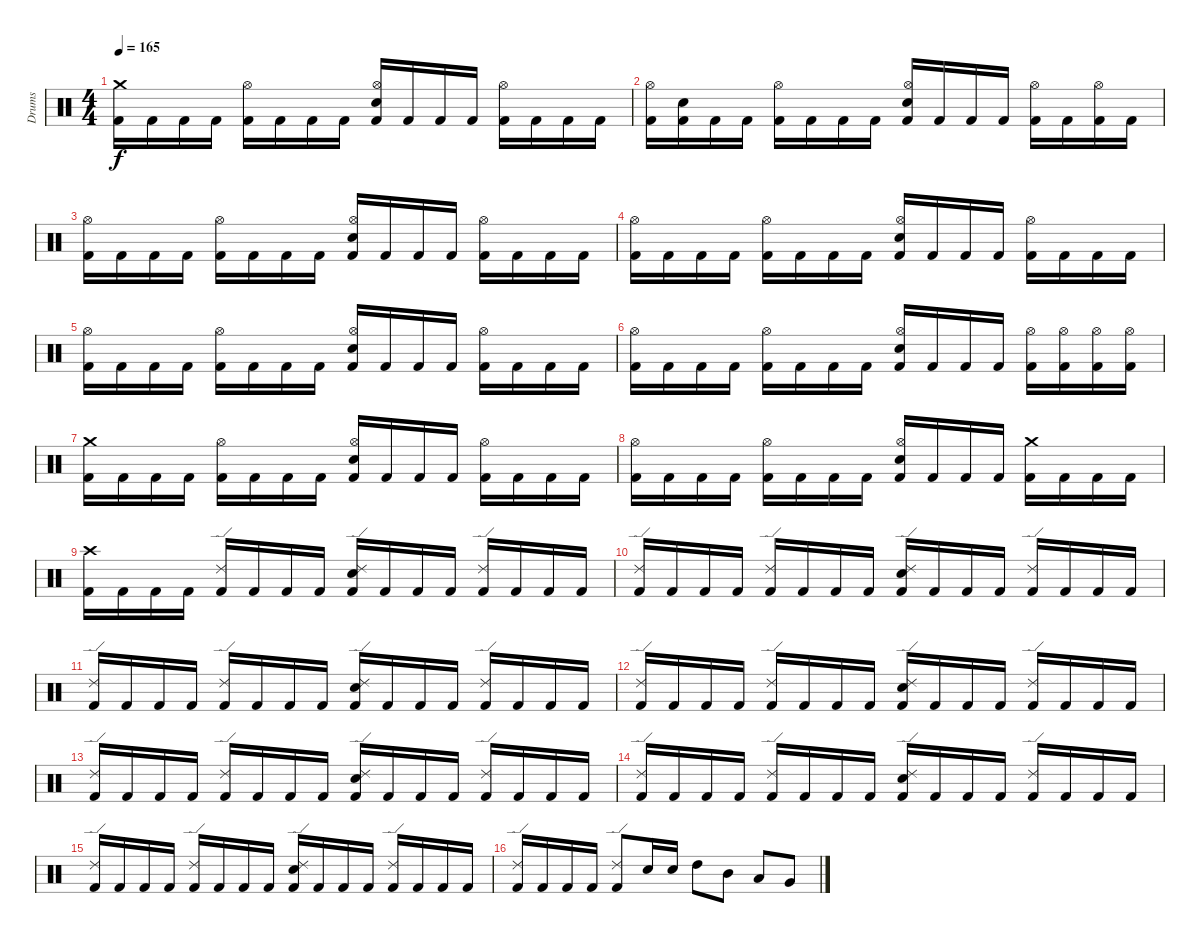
\track ("Drums" "Drums") {instrument percussion}
\staff {score}
\articulation defaults
\ts (4 4)
\tempo 165
\clef neutral
\ks c
("Kick (hit) 2" "Crash medium (hit)").16{dy f} "Kick (hit) 2".16 "Kick (hit) 2".16 "Kick (hit) 2".16 ("Kick (hit) 2" "Hi-Hat (open)").16 "Kick (hit) 2".16 "Kick (hit) 2".16 "Kick (hit) 2".16 ("Kick (hit) 2" "Electric Snare (hit)" "Hi-Hat (open)").16 "Kick (hit) 2".16 "Kick (hit) 2".16 "Kick (hit) 2".16 ("Kick (hit) 2" "Hi-Hat (open)").16 "Kick (hit) 2".16 "Kick (hit) 2".16 "Kick (hit) 2".16 |
("Kick (hit) 2" "Hi-Hat (open)").16 ("Kick (hit) 2" "Snare (hit)").16 "Kick (hit) 2".16 "Kick (hit) 2".16 ("Kick (hit) 2" "Hi-Hat (open)").16 "Kick (hit) 2".16 "Kick (hit) 2".16 "Kick (hit) 2".16 ("Kick (hit) 2" "Electric Snare (hit)" "Hi-Hat (open)").16 "Kick (hit) 2".16 "Kick (hit) 2".16 "Kick (hit) 2".16 ("Kick (hit) 2" "Hi-Hat (open)").16 "Kick (hit) 2".16 ("Kick (hit) 2" "Hi-Hat (open)").16 "Kick (hit) 2".16 |
("Kick (hit) 2" "Hi-Hat (open)").16 "Kick (hit) 2".16 "Kick (hit) 2".16 "Kick (hit) 2".16 ("Kick (hit) 2" "Hi-Hat (open)").16 "Kick (hit) 2".16 "Kick (hit) 2".16 "Kick (hit) 2".16 ("Kick (hit) 2" "Electric Snare (hit)" "Hi-Hat (open)").16 "Kick (hit) 2".16 "Kick (hit) 2".16 "Kick (hit) 2".16 ("Kick (hit) 2" "Hi-Hat (open)").16 "Kick (hit) 2".16 "Kick (hit) 2".16 "Kick (hit) 2".16 |
("Kick (hit) 2" "Hi-Hat (open)").16 "Kick (hit) 2".16 "Kick (hit) 2".16 "Kick (hit) 2".16 ("Kick (hit) 2" "Hi-Hat (open)").16 "Kick (hit) 2".16 "Kick (hit) 2".16 "Kick (hit) 2".16 ("Kick (hit) 2" "Electric Snare (hit)" "Hi-Hat (open)").16 "Kick (hit) 2".16 "Kick (hit) 2".16 "Kick (hit) 2".16 ("Kick (hit) 2" "Hi-Hat (open)").16 "Kick (hit) 2".16 "Kick (hit) 2".16 "Kick (hit) 2".16 |
("Kick (hit) 2" "Hi-Hat (open)").16 "Kick (hit) 2".16 "Kick (hit) 2".16 "Kick (hit) 2".16 ("Kick (hit) 2" "Hi-Hat (open)").16 "Kick (hit) 2".16 "Kick (hit) 2".16 "Kick (hit) 2".16 ("Kick (hit) 2" "Electric Snare (hit)" "Hi-Hat (open)").16 "Kick (hit) 2".16 "Kick (hit) 2".16 "Kick (hit) 2".16 ("Kick (hit) 2" "Hi-Hat (open)").16 "Kick (hit) 2".16 "Kick (hit) 2".16 "Kick (hit) 2".16 |
("Kick (hit) 2" "Hi-Hat (open)").16 "Kick (hit) 2".16 "Kick (hit) 2".16 "Kick (hit) 2".16 ("Kick (hit) 2" "Hi-Hat (open)").16 "Kick (hit) 2".16 "Kick (hit) 2".16 "Kick (hit) 2".16 ("Kick (hit) 2" "Electric Snare (hit)" "Hi-Hat (open)").16 "Kick (hit) 2".16 "Kick (hit) 2".16 "Kick (hit) 2".16 ("Kick (hit) 2" "Hi-Hat (open)").16 ("Kick (hit) 2" "Hi-Hat (open)").16 ("Kick (hit) 2" "Hi-Hat (open)").16 ("Kick (hit) 2" "Hi-Hat (open)").16 |
("Kick (hit) 2" "Crash medium (hit)").16 "Kick (hit) 2".16 "Kick (hit) 2".16 "Kick (hit) 2".16 ("Kick (hit) 2" "Hi-Hat (open)").16 "Kick (hit) 2".16 "Kick (hit) 2".16 "Kick (hit) 2".16 ("Kick (hit) 2" "Electric Snare (hit)" "Hi-Hat (open)").16 "Kick (hit) 2".16 "Kick (hit) 2".16 "Kick (hit) 2".16 ("Kick (hit) 2" "Hi-Hat (open)").16 "Kick (hit) 2".16 "Kick (hit) 2".16 "Kick (hit) 2".16 |
("Kick (hit) 2" "Hi-Hat (open)").16 "Kick (hit) 2".16 "Kick (hit) 2".16 "Kick (hit) 2".16 ("Kick (hit) 2" "Hi-Hat (open)").16 "Kick (hit) 2".16 "Kick (hit) 2".16 "Kick (hit) 2".16 ("Kick (hit) 2" "Electric Snare (hit)" "Hi-Hat (open)").16 "Kick (hit) 2".16 "Kick (hit) 2".16 "Kick (hit) 2".16 ("Kick (hit) 2" "Crash medium (hit)").16 "Kick (hit) 2".16 "Kick (hit) 2".16 "Kick (hit) 2".16 |
("Kick (hit) 2" "Crash high (hit)").16 "Kick (hit) 2".16 "Kick (hit) 2".16 "Kick (hit) 2".16 ("Kick (hit) 2" "Ride (edge) 2").16 "Kick (hit) 2".16 "Kick (hit) 2".16 "Kick (hit) 2".16 ("Kick (hit) 2" "Electric Snare (hit)" "Ride (edge) 2").16 "Kick (hit) 2".16 "Kick (hit) 2".16 "Kick (hit) 2".16 ("Kick (hit) 2" "Ride (edge) 2").16 "Kick (hit) 2".16 "Kick (hit) 2".16 "Kick (hit) 2".16 |
("Kick (hit) 2" "Ride (edge) 2").16 "Kick (hit) 2".16 "Kick (hit) 2".16 "Kick (hit) 2".16 ("Kick (hit) 2" "Ride (edge) 2").16 "Kick (hit) 2".16 "Kick (hit) 2".16 "Kick (hit) 2".16 ("Kick (hit) 2" "Electric Snare (hit)" "Ride (edge) 2").16 "Kick (hit) 2".16 "Kick (hit) 2".16 "Kick (hit) 2".16 ("Kick (hit) 2" "Ride (edge) 2").16 "Kick (hit) 2".16 "Kick (hit) 2".16 "Kick (hit) 2".16 |
("Kick (hit) 2" "Ride (edge) 2").16 "Kick (hit) 2".16 "Kick (hit) 2".16 "Kick (hit) 2".16 ("Kick (hit) 2" "Ride (edge) 2").16 "Kick (hit) 2".16 "Kick (hit) 2".16 "Kick (hit) 2".16 ("Kick (hit) 2" "Electric Snare (hit)" "Ride (edge) 2").16 "Kick (hit) 2".16 "Kick (hit) 2".16 "Kick (hit) 2".16 ("Kick (hit) 2" "Ride (edge) 2").16 "Kick (hit) 2".16 "Kick (hit) 2".16 "Kick (hit) 2".16 |
("Kick (hit) 2" "Ride (edge) 2").16 "Kick (hit) 2".16 "Kick (hit) 2".16 "Kick (hit) 2".16 ("Kick (hit) 2" "Ride (edge) 2").16 "Kick (hit) 2".16 "Kick (hit) 2".16 "Kick (hit) 2".16 ("Kick (hit) 2" "Electric Snare (hit)" "Ride (edge) 2").16 "Kick (hit) 2".16 "Kick (hit) 2".16 "Kick (hit) 2".16 ("Kick (hit) 2" "Ride (edge) 2").16 "Kick (hit) 2".16 "Kick (hit) 2".16 "Kick (hit) 2".16 |
("Kick (hit) 2" "Ride (edge) 2").16 "Kick (hit) 2".16 "Kick (hit) 2".16 "Kick (hit) 2".16 ("Kick (hit) 2" "Ride (edge) 2").16 "Kick (hit) 2".16 "Kick (hit) 2".16 "Kick (hit) 2".16 ("Kick (hit) 2" "Electric Snare (hit)" "Ride (edge) 2").16 "Kick (hit) 2".16 "Kick (hit) 2".16 "Kick (hit) 2".16 ("Kick (hit) 2" "Ride (edge) 2").16 "Kick (hit) 2".16 "Kick (hit) 2".16 "Kick (hit) 2".16 |
("Kick (hit) 2" "Ride (edge) 2").16 "Kick (hit) 2".16 "Kick (hit) 2".16 "Kick (hit) 2".16 ("Kick (hit) 2" "Ride (edge) 2").16 "Kick (hit) 2".16 "Kick (hit) 2".16 "Kick (hit) 2".16 ("Kick (hit) 2" "Electric Snare (hit)" "Ride (edge) 2").16 "Kick (hit) 2".16 "Kick (hit) 2".16 "Kick (hit) 2".16 ("Kick (hit) 2" "Ride (edge) 2").16 "Kick (hit) 2".16 "Kick (hit) 2".16 "Kick (hit) 2".16 |
("Kick (hit) 2" "Ride (edge) 2").16 "Kick (hit) 2".16 "Kick (hit) 2".16 "Kick (hit) 2".16 ("Kick (hit) 2" "Ride (edge) 2").16 "Kick (hit) 2".16 "Kick (hit) 2".16 "Kick (hit) 2".16 ("Kick (hit) 2" "Electric Snare (hit)" "Ride (edge) 2").16 "Kick (hit) 2".16 "Kick (hit) 2".16 "Kick (hit) 2".16 ("Kick (hit) 2" "Ride (edge) 2").16 "Kick (hit) 2".16 "Kick (hit) 2".16 "Kick (hit) 2".16 |
("Kick (hit) 2" "Ride (edge) 2").16 "Kick (hit) 2".16 "Kick (hit) 2".16 "Kick (hit) 2".16 ("Kick (hit) 2" "Ride (edge) 2").8 "Electric Snare (hit)".16 "Electric Snare (hit)".16 "High Tom (hit)".8 "Mid Tom (hit)".8 "Low Tom (hit)".8 "Very Low Tom (hit)".8
